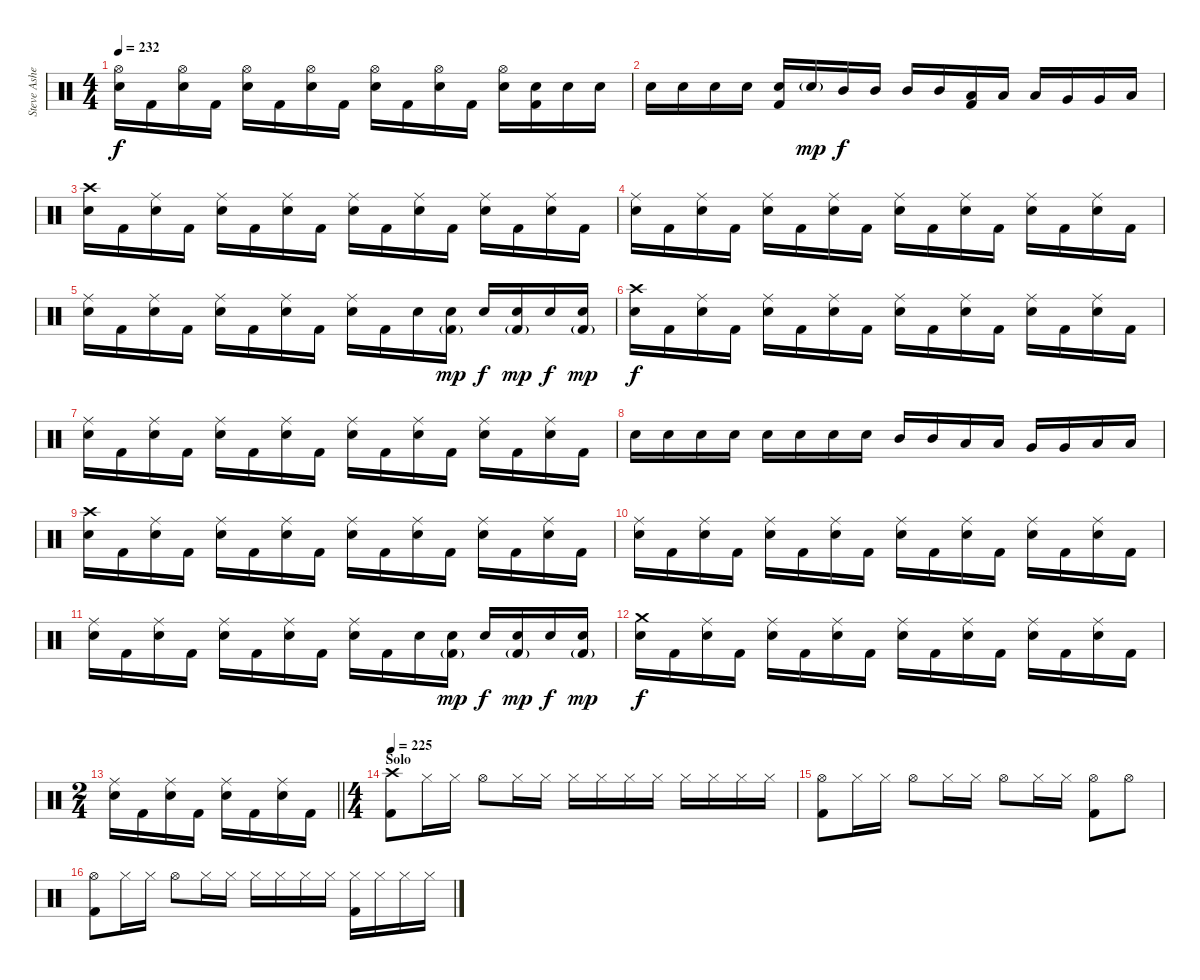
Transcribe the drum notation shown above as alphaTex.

\track ("Steve Asheim" "Steve Ashe") {instrument percussion}
\staff {score}
\articulation defaults
\ts (4 4)
\tempo 232
\clef neutral
\ks c
("Hi-Hat (open)" "Electric Snare (hit)").16{dy f} "Kick (hit) 2".16 ("Hi-Hat (open)" "Electric Snare (hit)").16 "Kick (hit) 2".16 ("Hi-Hat (open)" "Electric Snare (hit)").16 "Kick (hit) 2".16 ("Hi-Hat (open)" "Electric Snare (hit)").16 "Kick (hit) 2".16 ("Hi-Hat (open)" "Electric Snare (hit)").16 "Kick (hit) 2".16 ("Hi-Hat (open)" "Electric Snare (hit)").16 "Kick (hit) 2".16 ("Hi-Hat (open)" "Electric Snare (hit)").16 ("Electric Snare (hit)" "Kick (hit) 2").16 "Electric Snare (hit)".16 "Electric Snare (hit)".16 |
"Electric Snare (hit)".16 "Electric Snare (hit)".16 "Electric Snare (hit)".16 "Electric Snare (hit)".16 ("Electric Snare (hit)" "Kick (hit) 2").16 "Electric Snare (hit)"{g}.16{dy mp} "Mid Tom (hit)".16{dy f} "Mid Tom (hit)".16 "Mid Tom (hit)".16 "Mid Tom (hit)".16 ("Low Tom (hit)" "Kick (hit) 2").16 "Low Tom (hit)".16 "Low Tom (hit)".16 "Very Low Tom (hit)".16 "Very Low Tom (hit)".16 "Low Floor Tom (hit)".16 |
("Crash high (hit)" "Electric Snare (hit)").16 "Kick (hit) 2".16 ("Ride (middle)" "Electric Snare (hit)").16 "Kick (hit) 2".16 ("Ride (middle)" "Electric Snare (hit)").16 "Kick (hit) 2".16 ("Ride (middle)" "Electric Snare (hit)").16 "Kick (hit) 2".16 ("Ride (middle)" "Electric Snare (hit)").16 "Kick (hit) 2".16 ("Ride (middle)" "Electric Snare (hit)").16 "Kick (hit) 2".16 ("Ride (middle)" "Electric Snare (hit)").16 "Kick (hit) 2".16 ("Ride (middle)" "Electric Snare (hit)").16 "Kick (hit) 2".16 |
("Ride (middle)" "Electric Snare (hit)").16 "Kick (hit) 2".16 ("Ride (middle)" "Electric Snare (hit)").16 "Kick (hit) 2".16 ("Ride (middle)" "Electric Snare (hit)").16 "Kick (hit) 2".16 ("Ride (middle)" "Electric Snare (hit)").16 "Kick (hit) 2".16 ("Ride (middle)" "Electric Snare (hit)").16 "Kick (hit) 2".16 ("Ride (middle)" "Electric Snare (hit)").16 "Kick (hit) 2".16 ("Ride (middle)" "Electric Snare (hit)").16 "Kick (hit) 2".16 ("Ride (middle)" "Electric Snare (hit)").16 "Kick (hit) 2".16 |
("Ride (middle)" "Electric Snare (hit)").16 "Kick (hit) 2".16 ("Ride (middle)" "Electric Snare (hit)").16 "Kick (hit) 2".16 ("Ride (middle)" "Electric Snare (hit)").16 "Kick (hit) 2".16 ("Ride (middle)" "Electric Snare (hit)").16 "Kick (hit) 2".16 ("Ride (middle)" "Electric Snare (hit)").16 "Kick (hit) 2".16 "Electric Snare (hit)".16 ("Electric Snare (hit)" "Kick (hit) 2"{g}).16{dy mp} "Electric Snare (hit)".16{dy f} ("Electric Snare (hit)" "Kick (hit) 2"{g}).16{dy mp} "Electric Snare (hit)".16{dy f} ("Electric Snare (hit)" "Kick (hit) 2"{g}).16{dy mp} |
("Crash high (hit)" "Electric Snare (hit)").16{dy f} "Kick (hit) 2".16 ("Ride (middle)" "Electric Snare (hit)").16 "Kick (hit) 2".16 ("Ride (middle)" "Electric Snare (hit)").16 "Kick (hit) 2".16 ("Ride (middle)" "Electric Snare (hit)").16 "Kick (hit) 2".16 ("Ride (middle)" "Electric Snare (hit)").16 "Kick (hit) 2".16 ("Ride (middle)" "Electric Snare (hit)").16 "Kick (hit) 2".16 ("Ride (middle)" "Electric Snare (hit)").16 "Kick (hit) 2".16 ("Ride (middle)" "Electric Snare (hit)").16 "Kick (hit) 2".16 |
("Ride (middle)" "Electric Snare (hit)").16 "Kick (hit) 2".16 ("Ride (middle)" "Electric Snare (hit)").16 "Kick (hit) 2".16 ("Ride (middle)" "Electric Snare (hit)").16 "Kick (hit) 2".16 ("Ride (middle)" "Electric Snare (hit)").16 "Kick (hit) 2".16 ("Ride (middle)" "Electric Snare (hit)").16 "Kick (hit) 2".16 ("Ride (middle)" "Electric Snare (hit)").16 "Kick (hit) 2".16 ("Ride (middle)" "Electric Snare (hit)").16 "Kick (hit) 2".16 ("Ride (middle)" "Electric Snare (hit)").16 "Kick (hit) 2".16 |
"Electric Snare (hit)".16 "Electric Snare (hit)".16 "Electric Snare (hit)".16 "Electric Snare (hit)".16 "Electric Snare (hit)".16 "Electric Snare (hit)".16 "Electric Snare (hit)".16 "Electric Snare (hit)".16 "Mid Tom (hit)".16 "Mid Tom (hit)".16 "Low Tom (hit)".16 "Low Tom (hit)".16 "Very Low Tom (hit)".16 "Very Low Tom (hit)".16 "Low Floor Tom (hit)".16 "Low Floor Tom (hit)".16 |
("Crash high (hit)" "Electric Snare (hit)").16 "Kick (hit) 2".16 ("Ride (middle)" "Electric Snare (hit)").16 "Kick (hit) 2".16 ("Ride (middle)" "Electric Snare (hit)").16 "Kick (hit) 2".16 ("Ride (middle)" "Electric Snare (hit)").16 "Kick (hit) 2".16 ("Ride (middle)" "Electric Snare (hit)").16 "Kick (hit) 2".16 ("Ride (middle)" "Electric Snare (hit)").16 "Kick (hit) 2".16 ("Ride (middle)" "Electric Snare (hit)").16 "Kick (hit) 2".16 ("Ride (middle)" "Electric Snare (hit)").16 "Kick (hit) 2".16 |
("Ride (middle)" "Electric Snare (hit)").16 "Kick (hit) 2".16 ("Ride (middle)" "Electric Snare (hit)").16 "Kick (hit) 2".16 ("Ride (middle)" "Electric Snare (hit)").16 "Kick (hit) 2".16 ("Ride (middle)" "Electric Snare (hit)").16 "Kick (hit) 2".16 ("Ride (middle)" "Electric Snare (hit)").16 "Kick (hit) 2".16 ("Ride (middle)" "Electric Snare (hit)").16 "Kick (hit) 2".16 ("Ride (middle)" "Electric Snare (hit)").16 "Kick (hit) 2".16 ("Ride (middle)" "Electric Snare (hit)").16 "Kick (hit) 2".16 |
("Ride (middle)" "Electric Snare (hit)").16 "Kick (hit) 2".16 ("Ride (middle)" "Electric Snare (hit)").16 "Kick (hit) 2".16 ("Ride (middle)" "Electric Snare (hit)").16 "Kick (hit) 2".16 ("Ride (middle)" "Electric Snare (hit)").16 "Kick (hit) 2".16 ("Ride (middle)" "Electric Snare (hit)").16 "Kick (hit) 2".16 "Electric Snare (hit)".16 ("Electric Snare (hit)" "Kick (hit) 2"{g}).16{dy mp} "Electric Snare (hit)".16{dy f} ("Electric Snare (hit)" "Kick (hit) 2"{g}).16{dy mp} "Electric Snare (hit)".16{dy f} ("Electric Snare (hit)" "Kick (hit) 2"{g}).16{dy mp} |
("Crash medium (hit)" "Electric Snare (hit)").16{dy f} "Kick (hit) 2".16 ("Ride (middle)" "Electric Snare (hit)").16 "Kick (hit) 2".16 ("Ride (middle)" "Electric Snare (hit)").16 "Kick (hit) 2".16 ("Ride (middle)" "Electric Snare (hit)").16 "Kick (hit) 2".16 ("Ride (middle)" "Electric Snare (hit)").16 "Kick (hit) 2".16 ("Ride (middle)" "Electric Snare (hit)").16 "Kick (hit) 2".16 ("Ride (middle)" "Electric Snare (hit)").16 "Kick (hit) 2".16 ("Ride (middle)" "Electric Snare (hit)").16 "Kick (hit) 2".16 |
\ts (2 4)
\barLineRight lightlight
("Ride (middle)" "Electric Snare (hit)").16 "Kick (hit) 2".16 ("Ride (middle)" "Electric Snare (hit)").16 "Kick (hit) 2".16 ("Ride (middle)" "Electric Snare (hit)").16 "Kick (hit) 2".16 ("Ride (middle)" "Electric Snare (hit)").16 "Kick (hit) 2".16 |
\ts (4 4)
\section ("" "Solo")
\tempo 225
("Crash high (hit)" "Kick (hit) 2").8 "Hi-Hat (closed)".16 "Hi-Hat (closed)".16 "Hi-Hat (open)".8 "Hi-Hat (closed)".16 "Hi-Hat (closed)".16 "Hi-Hat (closed)".16 "Hi-Hat (closed)".16 "Hi-Hat (closed)".16 "Hi-Hat (closed)".16 "Hi-Hat (closed)".16 "Hi-Hat (closed)".16 "Hi-Hat (closed)".16 "Hi-Hat (closed)".16 |
("Hi-Hat (open)" "Kick (hit) 2").8 "Hi-Hat (closed)".16 "Hi-Hat (closed)".16 "Hi-Hat (open)".8 "Hi-Hat (closed)".16 "Hi-Hat (closed)".16 "Hi-Hat (open)".8 "Hi-Hat (closed)".16 "Hi-Hat (closed)".16 ("Hi-Hat (open)" "Kick (hit) 2").8 "Hi-Hat (open)".8 |
("Hi-Hat (open)" "Kick (hit) 2").8 "Hi-Hat (closed)".16 "Hi-Hat (closed)".16 "Hi-Hat (open)".8 "Hi-Hat (closed)".16 "Hi-Hat (closed)".16 "Hi-Hat (closed)".16 "Hi-Hat (closed)".16 "Hi-Hat (closed)".16 "Hi-Hat (closed)".16 ("Hi-Hat (closed)" "Kick (hit) 2").16 "Hi-Hat (closed)".16 "Hi-Hat (closed)".16 "Hi-Hat (closed)".16
